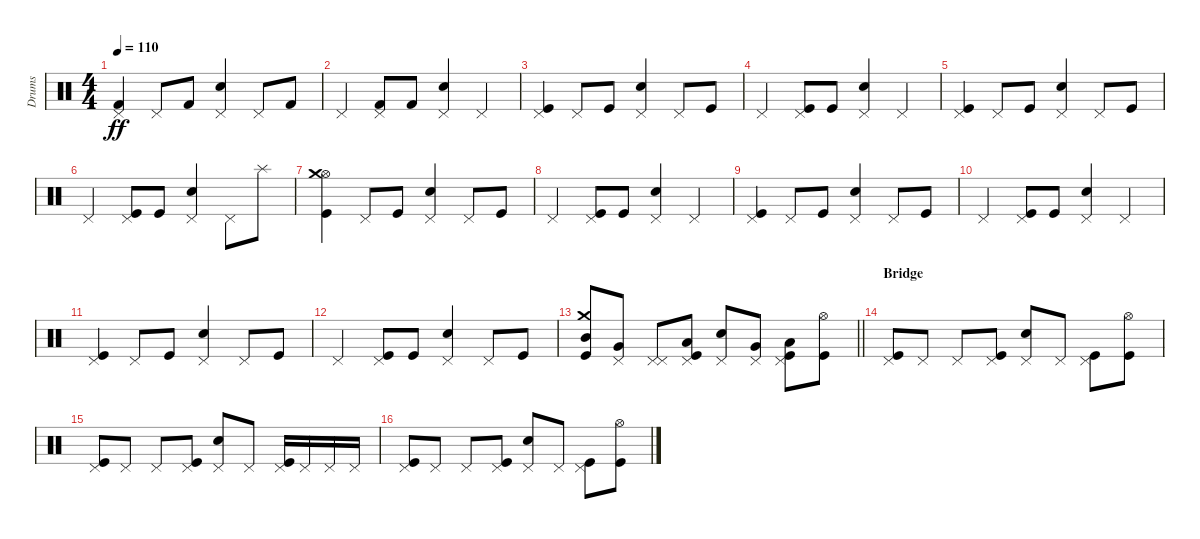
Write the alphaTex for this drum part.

\track ("Drums" "Drums") {instrument percussion}
\staff {score}
\articulation defaults
\ts (4 4)
\tempo 110
\clef neutral
\ks c
("Kick (hit) 2" "Pedal Hi-Hat (hit)").4{dy ff} "Pedal Hi-Hat (hit)".8 "Kick (hit) 2".8 ("Electric Snare (hit)" "Pedal Hi-Hat (hit)").4 "Pedal Hi-Hat (hit)".8 "Kick (hit) 2".8 |
"Pedal Hi-Hat (hit)".4 ("Kick (hit) 2" "Pedal Hi-Hat (hit)").8 "Kick (hit) 2".8 ("Electric Snare (hit)" "Pedal Hi-Hat (hit)").4 "Pedal Hi-Hat (hit)".4 |
("Kick (hit)" "Pedal Hi-Hat (hit)").4 "Pedal Hi-Hat (hit)".8 "Kick (hit)".8 ("Electric Snare (hit)" "Pedal Hi-Hat (hit)").4 "Pedal Hi-Hat (hit)".8 "Kick (hit)".8 |
"Pedal Hi-Hat (hit)".4 ("Kick (hit)" "Pedal Hi-Hat (hit)").8 "Kick (hit)".8 ("Electric Snare (hit)" "Pedal Hi-Hat (hit)").4 "Pedal Hi-Hat (hit)".4 |
("Kick (hit)" "Pedal Hi-Hat (hit)").4 "Pedal Hi-Hat (hit)".8 "Kick (hit)".8 ("Electric Snare (hit)" "Pedal Hi-Hat (hit)").4 "Pedal Hi-Hat (hit)".8 "Kick (hit)".8 |
"Pedal Hi-Hat (hit)".4 ("Kick (hit)" "Pedal Hi-Hat (hit)").8 "Kick (hit)".8 ("Electric Snare (hit)" "Pedal Hi-Hat (hit)").4 "Pedal Hi-Hat (hit)".8 "Splash (hit)".8 |
("Kick (hit)" "Hi-Hat (open)" "Crash medium (hit)").4 "Pedal Hi-Hat (hit)".8 "Kick (hit)".8 ("Electric Snare (hit)" "Pedal Hi-Hat (hit)").4 "Pedal Hi-Hat (hit)".8 "Kick (hit)".8 |
"Pedal Hi-Hat (hit)".4 ("Kick (hit)" "Pedal Hi-Hat (hit)").8 "Kick (hit)".8 ("Electric Snare (hit)" "Pedal Hi-Hat (hit)").4 "Pedal Hi-Hat (hit)".4 |
("Kick (hit)" "Pedal Hi-Hat (hit)").4 "Pedal Hi-Hat (hit)".8 "Kick (hit)".8 ("Electric Snare (hit)" "Pedal Hi-Hat (hit)").4 "Pedal Hi-Hat (hit)".8 "Kick (hit)".8 |
"Pedal Hi-Hat (hit)".4 ("Kick (hit)" "Pedal Hi-Hat (hit)").8 "Kick (hit)".8 ("Electric Snare (hit)" "Pedal Hi-Hat (hit)").4 "Pedal Hi-Hat (hit)".4 |
("Kick (hit)" "Pedal Hi-Hat (hit)").4 "Pedal Hi-Hat (hit)".8 "Kick (hit)".8 ("Electric Snare (hit)" "Pedal Hi-Hat (hit)").4 "Pedal Hi-Hat (hit)".8 "Kick (hit)".8 |
"Pedal Hi-Hat (hit)".4 ("Kick (hit)" "Pedal Hi-Hat (hit)").8 "Kick (hit)".8 ("Electric Snare (hit)" "Pedal Hi-Hat (hit)").4 "Pedal Hi-Hat (hit)".8 "Kick (hit)".8 |
\barLineRight lightlight
("Kick (hit)" "Mid Tom (hit)" "Crash medium (hit)").8 ("Very Low Tom (hit)" "Pedal Hi-Hat (hit)").8 ("Pedal Hi-Hat (hit)" "Pedal Hi-Hat (hit)").8 ("Kick (hit)" "Low Floor Tom (hit)" "Pedal Hi-Hat (hit)").8 ("Electric Snare (hit)" "Pedal Hi-Hat (hit)").8 ("Very Low Tom (hit)" "Pedal Hi-Hat (hit)").8 ("Kick (hit)" "Low Floor Tom (hit)" "Pedal Hi-Hat (hit)").8 ("Kick (hit)" "Hi-Hat (open)").8 |
\section ("" "Bridge")
("Kick (hit)" "Pedal Hi-Hat (hit)").8 "Pedal Hi-Hat (hit)".8 "Pedal Hi-Hat (hit)".8 ("Kick (hit)" "Pedal Hi-Hat (hit)").8 ("Electric Snare (hit)" "Pedal Hi-Hat (hit)").8 "Pedal Hi-Hat (hit)".8 ("Kick (hit)" "Pedal Hi-Hat (hit)").8 ("Kick (hit)" "Hi-Hat (open)").8 |
("Kick (hit)" "Pedal Hi-Hat (hit)").8 "Pedal Hi-Hat (hit)".8 "Pedal Hi-Hat (hit)".8 ("Kick (hit)" "Pedal Hi-Hat (hit)").8 ("Electric Snare (hit)" "Pedal Hi-Hat (hit)").8 "Pedal Hi-Hat (hit)".8 ("Kick (hit)" "Pedal Hi-Hat (hit)").16 "Pedal Hi-Hat (hit)".16 "Pedal Hi-Hat (hit)".16 "Pedal Hi-Hat (hit)".16 |
("Kick (hit)" "Pedal Hi-Hat (hit)").8 "Pedal Hi-Hat (hit)".8 "Pedal Hi-Hat (hit)".8 ("Kick (hit)" "Pedal Hi-Hat (hit)").8 ("Electric Snare (hit)" "Pedal Hi-Hat (hit)").8 "Pedal Hi-Hat (hit)".8 ("Kick (hit)" "Pedal Hi-Hat (hit)").8 ("Kick (hit)" "Hi-Hat (open)").8
